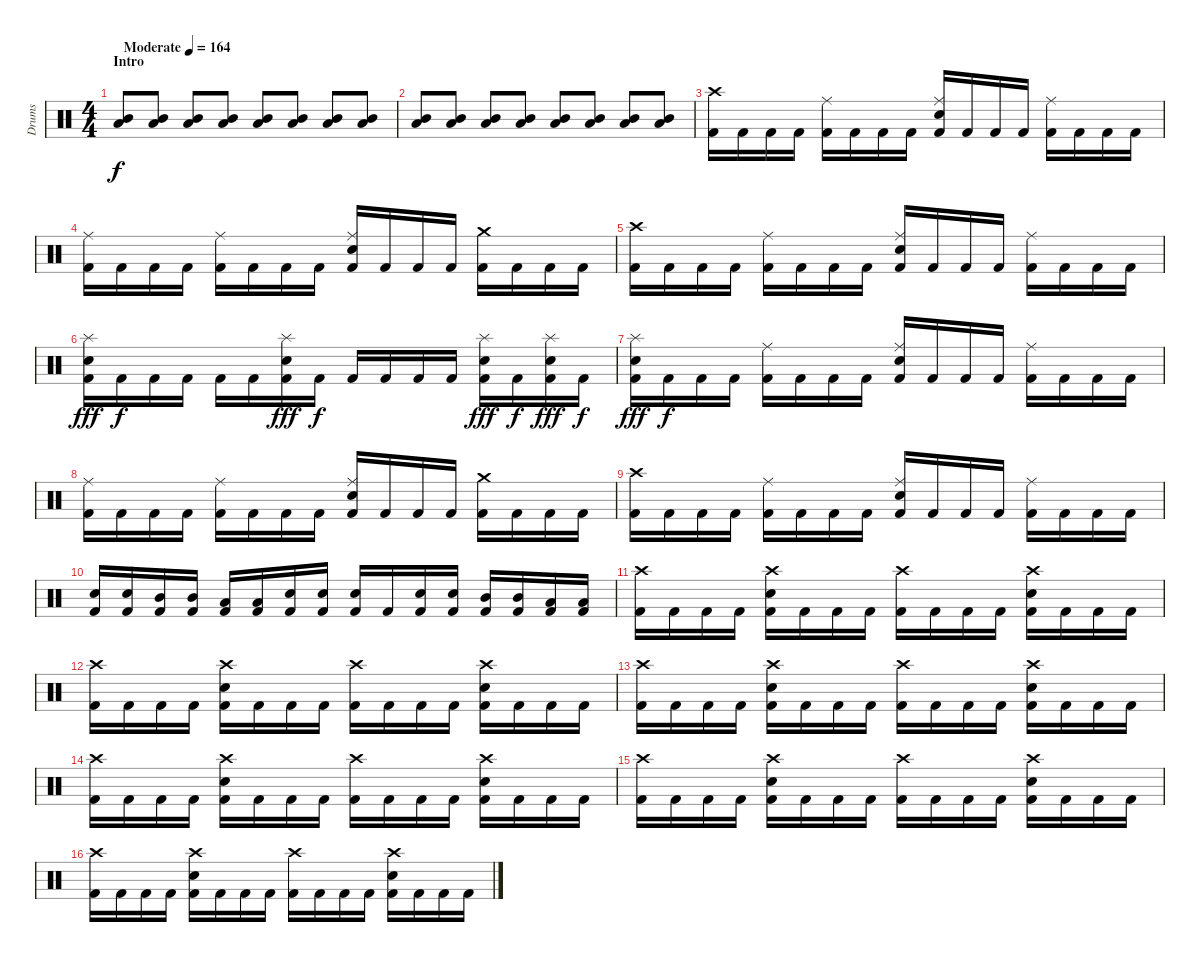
\track ("Drums" "Drums") {instrument percussion}
\staff {score}
\articulation defaults
\ts (4 4)
\section ("" "Intro")
\tempo (164 "Moderate")
\clef neutral
\ks c
("Mid Tom (hit)" "Low Floor Tom (hit)").8{dy f} ("Mid Tom (hit)" "Low Floor Tom (hit)").8 ("Mid Tom (hit)" "Low Floor Tom (hit)").8 ("Mid Tom (hit)" "Low Floor Tom (hit)").8 ("Mid Tom (hit)" "Low Floor Tom (hit)").8 ("Mid Tom (hit)" "Low Floor Tom (hit)").8 ("Mid Tom (hit)" "Low Floor Tom (hit)").8 ("Mid Tom (hit)" "Low Floor Tom (hit)").8 |
("Mid Tom (hit)" "Low Floor Tom (hit)").8 ("Mid Tom (hit)" "Low Floor Tom (hit)").8 ("Mid Tom (hit)" "Low Floor Tom (hit)").8 ("Mid Tom (hit)" "Low Floor Tom (hit)").8 ("Mid Tom (hit)" "Low Floor Tom (hit)").8 ("Mid Tom (hit)" "Low Floor Tom (hit)").8 ("Mid Tom (hit)" "Low Floor Tom (hit)").8 ("Mid Tom (hit)" "Low Floor Tom (hit)").8 |
("Crash high (hit)" "Kick (hit) 2").16 "Kick (hit) 2".16 "Kick (hit) 2".16 "Kick (hit) 2".16 ("Ride (middle)" "Kick (hit) 2").16 "Kick (hit) 2".16 "Kick (hit) 2".16 "Kick (hit) 2".16 ("Ride (middle)" "Electric Snare (hit)" "Kick (hit) 2").16 "Kick (hit) 2".16 "Kick (hit) 2".16 "Kick (hit) 2".16 ("Ride (middle)" "Kick (hit) 2").16 "Kick (hit) 2".16 "Kick (hit) 2".16 "Kick (hit) 2".16 |
("Ride (middle)" "Kick (hit) 2").16 "Kick (hit) 2".16 "Kick (hit) 2".16 "Kick (hit) 2".16 ("Ride (middle)" "Kick (hit) 2").16 "Kick (hit) 2".16 "Kick (hit) 2".16 "Kick (hit) 2".16 ("Ride (middle)" "Electric Snare (hit)" "Kick (hit) 2").16 "Kick (hit) 2".16 "Kick (hit) 2".16 "Kick (hit) 2".16 ("Crash medium (hit)" "Kick (hit) 2").16 "Kick (hit) 2".16 "Kick (hit) 2".16 "Kick (hit) 2".16 |
("Crash high (hit)" "Kick (hit) 2").16 "Kick (hit) 2".16 "Kick (hit) 2".16 "Kick (hit) 2".16 ("Ride (middle)" "Kick (hit) 2").16 "Kick (hit) 2".16 "Kick (hit) 2".16 "Kick (hit) 2".16 ("Ride (middle)" "Electric Snare (hit)" "Kick (hit) 2").16 "Kick (hit) 2".16 "Kick (hit) 2".16 "Kick (hit) 2".16 ("Ride (middle)" "Kick (hit) 2").16 "Kick (hit) 2".16 "Kick (hit) 2".16 "Kick (hit) 2".16 |
("Splash (hit)" "Electric Snare (hit)" "Kick (hit) 2").16{dy fff} "Kick (hit) 2".16{dy f} "Kick (hit) 2".16 "Kick (hit) 2".16 "Kick (hit) 2".16 "Kick (hit) 2".16 ("Splash (hit)" "Electric Snare (hit)" "Kick (hit) 2").16{dy fff} "Kick (hit) 2".16{dy f} "Kick (hit) 2".16 "Kick (hit) 2".16 "Kick (hit) 2".16 "Kick (hit) 2".16 ("Splash (hit)" "Electric Snare (hit)" "Kick (hit) 2").16{dy fff} "Kick (hit) 2".16{dy f} ("Splash (hit)" "Electric Snare (hit)" "Kick (hit) 2").16{dy fff} "Kick (hit) 2".16{dy f} |
("Splash (hit)" "Electric Snare (hit)" "Kick (hit) 2").16{dy fff} "Kick (hit) 2".16{dy f} "Kick (hit) 2".16 "Kick (hit) 2".16 ("Ride (middle)" "Kick (hit) 2").16 "Kick (hit) 2".16 "Kick (hit) 2".16 "Kick (hit) 2".16 ("Ride (middle)" "Electric Snare (hit)" "Kick (hit) 2").16 "Kick (hit) 2".16 "Kick (hit) 2".16 "Kick (hit) 2".16 ("Ride (middle)" "Kick (hit) 2").16 "Kick (hit) 2".16 "Kick (hit) 2".16 "Kick (hit) 2".16 |
("Ride (middle)" "Kick (hit) 2").16 "Kick (hit) 2".16 "Kick (hit) 2".16 "Kick (hit) 2".16 ("Ride (middle)" "Kick (hit) 2").16 "Kick (hit) 2".16 "Kick (hit) 2".16 "Kick (hit) 2".16 ("Ride (middle)" "Electric Snare (hit)" "Kick (hit) 2").16 "Kick (hit) 2".16 "Kick (hit) 2".16 "Kick (hit) 2".16 ("Crash medium (hit)" "Kick (hit) 2").16 "Kick (hit) 2".16 "Kick (hit) 2".16 "Kick (hit) 2".16 |
("Crash high (hit)" "Kick (hit) 2").16 "Kick (hit) 2".16 "Kick (hit) 2".16 "Kick (hit) 2".16 ("Ride (middle)" "Kick (hit) 2").16 "Kick (hit) 2".16 "Kick (hit) 2".16 "Kick (hit) 2".16 ("Ride (middle)" "Electric Snare (hit)" "Kick (hit) 2").16 "Kick (hit) 2".16 "Kick (hit) 2".16 "Kick (hit) 2".16 ("Ride (middle)" "Kick (hit) 2").16 "Kick (hit) 2".16 "Kick (hit) 2".16 "Kick (hit) 2".16 |
("Electric Snare (hit)" "Kick (hit) 2").16 ("Electric Snare (hit)" "Kick (hit) 2").16 ("Mid Tom (hit)" "Kick (hit) 2").16 ("Mid Tom (hit)" "Kick (hit) 2").16 ("Low Tom (hit)" "Kick (hit) 2").16 ("Low Tom (hit)" "Kick (hit) 2").16 ("Electric Snare (hit)" "Kick (hit) 2").16 ("Electric Snare (hit)" "Kick (hit) 2").16 ("Electric Snare (hit)" "Kick (hit) 2").16 "Kick (hit) 2".16 ("Electric Snare (hit)" "Kick (hit) 2").16 ("Electric Snare (hit)" "Kick (hit) 2").16 ("Mid Tom (hit)" "Kick (hit) 2").16 ("Mid Tom (hit)" "Kick (hit) 2").16 ("Low Tom (hit)" "Kick (hit) 2").16 ("Low Tom (hit)" "Kick (hit) 2").16 |
("Crash high (hit)" "Kick (hit) 2").16 "Kick (hit) 2".16 "Kick (hit) 2".16 "Kick (hit) 2".16 ("Crash high (hit)" "Electric Snare (hit)" "Kick (hit) 2").16 "Kick (hit) 2".16 "Kick (hit) 2".16 "Kick (hit) 2".16 ("Crash high (hit)" "Kick (hit) 2").16 "Kick (hit) 2".16 "Kick (hit) 2".16 "Kick (hit) 2".16 ("Crash high (hit)" "Electric Snare (hit)" "Kick (hit) 2").16 "Kick (hit) 2".16 "Kick (hit) 2".16 "Kick (hit) 2".16 |
("Crash high (hit)" "Kick (hit) 2").16 "Kick (hit) 2".16 "Kick (hit) 2".16 "Kick (hit) 2".16 ("Crash high (hit)" "Electric Snare (hit)" "Kick (hit) 2").16 "Kick (hit) 2".16 "Kick (hit) 2".16 "Kick (hit) 2".16 ("Crash high (hit)" "Kick (hit) 2").16 "Kick (hit) 2".16 "Kick (hit) 2".16 "Kick (hit) 2".16 ("Crash high (hit)" "Electric Snare (hit)" "Kick (hit) 2").16 "Kick (hit) 2".16 "Kick (hit) 2".16 "Kick (hit) 2".16 |
("Crash high (hit)" "Kick (hit) 2").16 "Kick (hit) 2".16 "Kick (hit) 2".16 "Kick (hit) 2".16 ("Crash high (hit)" "Electric Snare (hit)" "Kick (hit) 2").16 "Kick (hit) 2".16 "Kick (hit) 2".16 "Kick (hit) 2".16 ("Crash high (hit)" "Kick (hit) 2").16 "Kick (hit) 2".16 "Kick (hit) 2".16 "Kick (hit) 2".16 ("Crash high (hit)" "Electric Snare (hit)" "Kick (hit) 2").16 "Kick (hit) 2".16 "Kick (hit) 2".16 "Kick (hit) 2".16 |
("Crash high (hit)" "Kick (hit) 2").16 "Kick (hit) 2".16 "Kick (hit) 2".16 "Kick (hit) 2".16 ("Crash high (hit)" "Electric Snare (hit)" "Kick (hit) 2").16 "Kick (hit) 2".16 "Kick (hit) 2".16 "Kick (hit) 2".16 ("Crash high (hit)" "Kick (hit) 2").16 "Kick (hit) 2".16 "Kick (hit) 2".16 "Kick (hit) 2".16 ("Crash high (hit)" "Electric Snare (hit)" "Kick (hit) 2").16 "Kick (hit) 2".16 "Kick (hit) 2".16 "Kick (hit) 2".16 |
("Crash high (hit)" "Kick (hit) 2").16 "Kick (hit) 2".16 "Kick (hit) 2".16 "Kick (hit) 2".16 ("Crash high (hit)" "Electric Snare (hit)" "Kick (hit) 2").16 "Kick (hit) 2".16 "Kick (hit) 2".16 "Kick (hit) 2".16 ("Crash high (hit)" "Kick (hit) 2").16 "Kick (hit) 2".16 "Kick (hit) 2".16 "Kick (hit) 2".16 ("Crash high (hit)" "Electric Snare (hit)" "Kick (hit) 2").16 "Kick (hit) 2".16 "Kick (hit) 2".16 "Kick (hit) 2".16 |
("Crash high (hit)" "Kick (hit) 2").16 "Kick (hit) 2".16 "Kick (hit) 2".16 "Kick (hit) 2".16 ("Crash high (hit)" "Electric Snare (hit)" "Kick (hit) 2").16 "Kick (hit) 2".16 "Kick (hit) 2".16 "Kick (hit) 2".16 ("Crash high (hit)" "Kick (hit) 2").16 "Kick (hit) 2".16 "Kick (hit) 2".16 "Kick (hit) 2".16 ("Crash high (hit)" "Electric Snare (hit)" "Kick (hit) 2").16 "Kick (hit) 2".16 "Kick (hit) 2".16 "Kick (hit) 2".16
